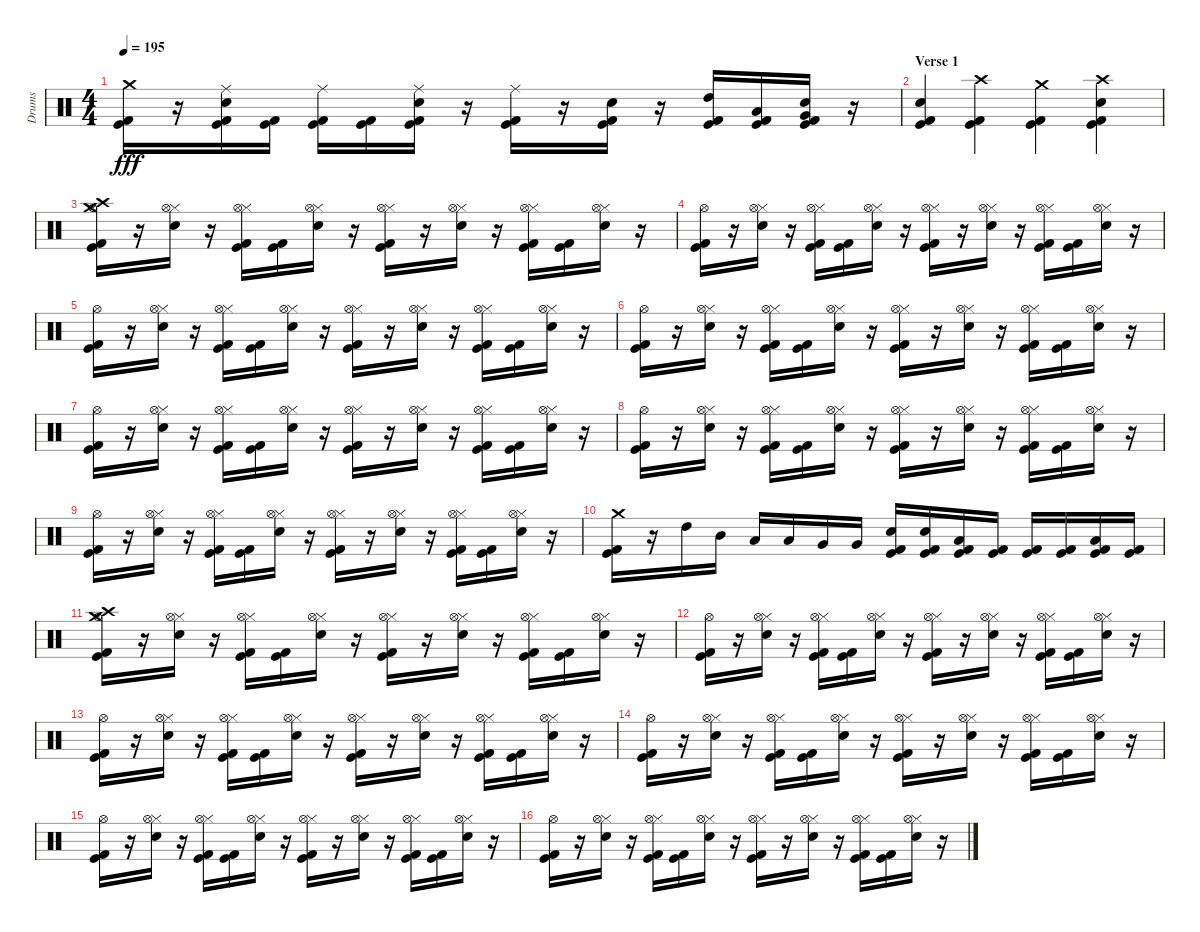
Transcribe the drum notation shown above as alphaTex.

\track ("Drums" "Drums") {instrument percussion}
\staff {score}
\articulation defaults
\ts (4 4)
\tempo 195
\clef neutral
\ks c
("Kick (hit) 2" "Kick (hit)" "Crash medium (hit)").16{dy fff} r.16 ("Kick (hit) 2" "Kick (hit)" "Snare (hit) 2" "Ride (middle)").16 ("Kick (hit) 2" "Kick (hit)").16 ("Kick (hit) 2" "Kick (hit)" "Ride (middle)").16 ("Kick (hit) 2" "Kick (hit)").16 ("Kick (hit) 2" "Kick (hit)" "Snare (hit) 2" "Ride (middle)").16 r.16 ("Kick (hit) 2" "Kick (hit)" "Ride (middle)").16 r.16 ("Kick (hit) 2" "Kick (hit)" "Snare (hit) 2").16 r.16 ("Kick (hit) 2" "Kick (hit)" "High Tom (hit)").16 ("Kick (hit) 2" "Kick (hit)" "Low Tom (hit)").16 ("Kick (hit) 2" "Kick (hit)" "Snare (hit) 2" "Very Low Tom (hit)").16 r.16 |
\section ("" "Verse 1")
("Kick (hit) 2" "Kick (hit)" "Snare (hit) 2").4 ("Kick (hit) 2" "Kick (hit)" "Crash high (hit)").4 ("Kick (hit) 2" "Kick (hit)" "Crash medium (hit)").4 ("Kick (hit) 2" "Kick (hit)" "Snare (hit) 2" "Crash high (hit)").4 |
("Kick (hit) 2" "Kick (hit)" "Crash high (hit)" "Hi-Hat (open)" "Crash medium (hit)").16 r.16 ("Snare (hit) 2" "Hi-Hat (closed)" "Hi-Hat (open)").16 r.16 ("Kick (hit) 2" "Kick (hit)" "Hi-Hat (closed)" "Hi-Hat (open)").16 ("Kick (hit) 2" "Kick (hit)").16 ("Snare (hit) 2" "Hi-Hat (closed)" "Hi-Hat (open)").16 r.16 ("Kick (hit) 2" "Kick (hit)" "Hi-Hat (closed)" "Hi-Hat (open)").16 r.16 ("Snare (hit) 2" "Hi-Hat (closed)" "Hi-Hat (open)").16 r.16 ("Kick (hit) 2" "Kick (hit)" "Hi-Hat (closed)" "Hi-Hat (open)").16 ("Kick (hit) 2" "Kick (hit)").16 ("Snare (hit) 2" "Hi-Hat (closed)" "Hi-Hat (open)").16 r.16 |
("Kick (hit) 2" "Kick (hit)" "Hi-Hat (open)").16 r.16 ("Snare (hit) 2" "Hi-Hat (closed)" "Hi-Hat (open)").16 r.16 ("Kick (hit) 2" "Kick (hit)" "Hi-Hat (closed)" "Hi-Hat (open)").16 ("Kick (hit) 2" "Kick (hit)").16 ("Snare (hit) 2" "Hi-Hat (closed)" "Hi-Hat (open)").16 r.16 ("Kick (hit) 2" "Kick (hit)" "Hi-Hat (closed)" "Hi-Hat (open)").16 r.16 ("Snare (hit) 2" "Hi-Hat (closed)" "Hi-Hat (open)").16 r.16 ("Kick (hit) 2" "Kick (hit)" "Hi-Hat (closed)" "Hi-Hat (open)").16 ("Kick (hit) 2" "Kick (hit)").16 ("Snare (hit) 2" "Hi-Hat (closed)" "Hi-Hat (open)").16 r.16 |
("Kick (hit) 2" "Kick (hit)" "Hi-Hat (open)").16 r.16 ("Snare (hit) 2" "Hi-Hat (closed)" "Hi-Hat (open)").16 r.16 ("Kick (hit) 2" "Kick (hit)" "Hi-Hat (closed)" "Hi-Hat (open)").16 ("Kick (hit) 2" "Kick (hit)").16 ("Snare (hit) 2" "Hi-Hat (closed)" "Hi-Hat (open)").16 r.16 ("Kick (hit) 2" "Kick (hit)" "Hi-Hat (closed)" "Hi-Hat (open)").16 r.16 ("Snare (hit) 2" "Hi-Hat (closed)" "Hi-Hat (open)").16 r.16 ("Kick (hit) 2" "Kick (hit)" "Hi-Hat (closed)" "Hi-Hat (open)").16 ("Kick (hit) 2" "Kick (hit)").16 ("Snare (hit) 2" "Hi-Hat (closed)" "Hi-Hat (open)").16 r.16 |
("Kick (hit) 2" "Kick (hit)" "Hi-Hat (open)").16 r.16 ("Snare (hit) 2" "Hi-Hat (closed)" "Hi-Hat (open)").16 r.16 ("Kick (hit) 2" "Kick (hit)" "Hi-Hat (closed)" "Hi-Hat (open)").16 ("Kick (hit) 2" "Kick (hit)").16 ("Snare (hit) 2" "Hi-Hat (closed)" "Hi-Hat (open)").16 r.16 ("Kick (hit) 2" "Kick (hit)" "Hi-Hat (closed)" "Hi-Hat (open)").16 r.16 ("Snare (hit) 2" "Hi-Hat (closed)" "Hi-Hat (open)").16 r.16 ("Kick (hit) 2" "Kick (hit)" "Hi-Hat (closed)" "Hi-Hat (open)").16 ("Kick (hit) 2" "Kick (hit)").16 ("Snare (hit) 2" "Hi-Hat (closed)" "Hi-Hat (open)").16 r.16 |
("Kick (hit) 2" "Kick (hit)" "Hi-Hat (open)").16 r.16 ("Snare (hit) 2" "Hi-Hat (closed)" "Hi-Hat (open)").16 r.16 ("Kick (hit) 2" "Kick (hit)" "Hi-Hat (closed)" "Hi-Hat (open)").16 ("Kick (hit) 2" "Kick (hit)").16 ("Snare (hit) 2" "Hi-Hat (closed)" "Hi-Hat (open)").16 r.16 ("Kick (hit) 2" "Kick (hit)" "Hi-Hat (closed)" "Hi-Hat (open)").16 r.16 ("Snare (hit) 2" "Hi-Hat (closed)" "Hi-Hat (open)").16 r.16 ("Kick (hit) 2" "Kick (hit)" "Hi-Hat (closed)" "Hi-Hat (open)").16 ("Kick (hit) 2" "Kick (hit)").16 ("Snare (hit) 2" "Hi-Hat (closed)" "Hi-Hat (open)").16 r.16 |
("Kick (hit) 2" "Kick (hit)" "Hi-Hat (open)").16 r.16 ("Snare (hit) 2" "Hi-Hat (closed)" "Hi-Hat (open)").16 r.16 ("Kick (hit) 2" "Kick (hit)" "Hi-Hat (closed)" "Hi-Hat (open)").16 ("Kick (hit) 2" "Kick (hit)").16 ("Snare (hit) 2" "Hi-Hat (closed)" "Hi-Hat (open)").16 r.16 ("Kick (hit) 2" "Kick (hit)" "Hi-Hat (closed)" "Hi-Hat (open)").16 r.16 ("Snare (hit) 2" "Hi-Hat (closed)" "Hi-Hat (open)").16 r.16 ("Kick (hit) 2" "Kick (hit)" "Hi-Hat (closed)" "Hi-Hat (open)").16 ("Kick (hit) 2" "Kick (hit)").16 ("Snare (hit) 2" "Hi-Hat (closed)" "Hi-Hat (open)").16 r.16 |
("Kick (hit) 2" "Kick (hit)" "Hi-Hat (open)").16 r.16 ("Snare (hit) 2" "Hi-Hat (closed)" "Hi-Hat (open)").16 r.16 ("Kick (hit) 2" "Kick (hit)" "Hi-Hat (closed)" "Hi-Hat (open)").16 ("Kick (hit) 2" "Kick (hit)").16 ("Snare (hit) 2" "Hi-Hat (closed)" "Hi-Hat (open)").16 r.16 ("Kick (hit) 2" "Kick (hit)" "Hi-Hat (closed)" "Hi-Hat (open)").16 r.16 ("Snare (hit) 2" "Hi-Hat (closed)" "Hi-Hat (open)").16 r.16 ("Kick (hit) 2" "Kick (hit)" "Hi-Hat (closed)" "Hi-Hat (open)").16 ("Kick (hit) 2" "Kick (hit)").16 ("Snare (hit) 2" "Hi-Hat (closed)" "Hi-Hat (open)").16 r.16 |
("Kick (hit) 2" "Kick (hit)" "Crash medium (hit)").16 r.16 "High Tom (hit)".16 "Mid Tom (hit)".16 "Low Tom (hit)".16 "Low Tom (hit)".16 "Very Low Tom (hit)".16 "Very Low Tom (hit)".16 ("Kick (hit) 2" "Kick (hit)" "Snare (hit) 2").16 ("Kick (hit) 2" "Kick (hit)" "Snare (hit) 2").16 ("Kick (hit) 2" "Kick (hit)" "Low Tom (hit)").16 ("Kick (hit) 2" "Kick (hit)").16 ("Kick (hit) 2" "Kick (hit)").16 ("Kick (hit) 2" "Kick (hit)").16 ("Kick (hit) 2" "Kick (hit)" "Low Floor Tom (hit)").16 ("Kick (hit) 2" "Kick (hit)").16 |
("Kick (hit) 2" "Kick (hit)" "Crash high (hit)" "Hi-Hat (open)" "Crash medium (hit)").16 r.16 ("Snare (hit) 2" "Hi-Hat (closed)" "Hi-Hat (open)").16 r.16 ("Kick (hit) 2" "Kick (hit)" "Hi-Hat (closed)" "Hi-Hat (open)").16 ("Kick (hit) 2" "Kick (hit)").16 ("Snare (hit) 2" "Hi-Hat (closed)" "Hi-Hat (open)").16 r.16 ("Kick (hit) 2" "Kick (hit)" "Hi-Hat (closed)" "Hi-Hat (open)").16 r.16 ("Snare (hit) 2" "Hi-Hat (closed)" "Hi-Hat (open)").16 r.16 ("Kick (hit) 2" "Kick (hit)" "Hi-Hat (closed)" "Hi-Hat (open)").16 ("Kick (hit) 2" "Kick (hit)").16 ("Snare (hit) 2" "Hi-Hat (closed)" "Hi-Hat (open)").16 r.16 |
("Kick (hit) 2" "Kick (hit)" "Hi-Hat (open)").16 r.16 ("Snare (hit) 2" "Hi-Hat (closed)" "Hi-Hat (open)").16 r.16 ("Kick (hit) 2" "Kick (hit)" "Hi-Hat (closed)" "Hi-Hat (open)").16 ("Kick (hit) 2" "Kick (hit)").16 ("Snare (hit) 2" "Hi-Hat (closed)" "Hi-Hat (open)").16 r.16 ("Kick (hit) 2" "Kick (hit)" "Hi-Hat (closed)" "Hi-Hat (open)").16 r.16 ("Snare (hit) 2" "Hi-Hat (closed)" "Hi-Hat (open)").16 r.16 ("Kick (hit) 2" "Kick (hit)" "Hi-Hat (closed)" "Hi-Hat (open)").16 ("Kick (hit) 2" "Kick (hit)").16 ("Snare (hit) 2" "Hi-Hat (closed)" "Hi-Hat (open)").16 r.16 |
("Kick (hit) 2" "Kick (hit)" "Hi-Hat (open)").16 r.16 ("Snare (hit) 2" "Hi-Hat (closed)" "Hi-Hat (open)").16 r.16 ("Kick (hit) 2" "Kick (hit)" "Hi-Hat (closed)" "Hi-Hat (open)").16 ("Kick (hit) 2" "Kick (hit)").16 ("Snare (hit) 2" "Hi-Hat (closed)" "Hi-Hat (open)").16 r.16 ("Kick (hit) 2" "Kick (hit)" "Hi-Hat (closed)" "Hi-Hat (open)").16 r.16 ("Snare (hit) 2" "Hi-Hat (closed)" "Hi-Hat (open)").16 r.16 ("Kick (hit) 2" "Kick (hit)" "Hi-Hat (closed)" "Hi-Hat (open)").16 ("Kick (hit) 2" "Kick (hit)").16 ("Snare (hit) 2" "Hi-Hat (closed)" "Hi-Hat (open)").16 r.16 |
("Kick (hit) 2" "Kick (hit)" "Hi-Hat (open)").16 r.16 ("Snare (hit) 2" "Hi-Hat (closed)" "Hi-Hat (open)").16 r.16 ("Kick (hit) 2" "Kick (hit)" "Hi-Hat (closed)" "Hi-Hat (open)").16 ("Kick (hit) 2" "Kick (hit)").16 ("Snare (hit) 2" "Hi-Hat (closed)" "Hi-Hat (open)").16 r.16 ("Kick (hit) 2" "Kick (hit)" "Hi-Hat (closed)" "Hi-Hat (open)").16 r.16 ("Snare (hit) 2" "Hi-Hat (closed)" "Hi-Hat (open)").16 r.16 ("Kick (hit) 2" "Kick (hit)" "Hi-Hat (closed)" "Hi-Hat (open)").16 ("Kick (hit) 2" "Kick (hit)").16 ("Snare (hit) 2" "Hi-Hat (closed)" "Hi-Hat (open)").16 r.16 |
("Kick (hit) 2" "Kick (hit)" "Hi-Hat (open)").16 r.16 ("Snare (hit) 2" "Hi-Hat (closed)" "Hi-Hat (open)").16 r.16 ("Kick (hit) 2" "Kick (hit)" "Hi-Hat (closed)" "Hi-Hat (open)").16 ("Kick (hit) 2" "Kick (hit)").16 ("Snare (hit) 2" "Hi-Hat (closed)" "Hi-Hat (open)").16 r.16 ("Kick (hit) 2" "Kick (hit)" "Hi-Hat (closed)" "Hi-Hat (open)").16 r.16 ("Snare (hit) 2" "Hi-Hat (closed)" "Hi-Hat (open)").16 r.16 ("Kick (hit) 2" "Kick (hit)" "Hi-Hat (closed)" "Hi-Hat (open)").16 ("Kick (hit) 2" "Kick (hit)").16 ("Snare (hit) 2" "Hi-Hat (closed)" "Hi-Hat (open)").16 r.16 |
("Kick (hit) 2" "Kick (hit)" "Hi-Hat (open)").16 r.16 ("Snare (hit) 2" "Hi-Hat (closed)" "Hi-Hat (open)").16 r.16 ("Kick (hit) 2" "Kick (hit)" "Hi-Hat (closed)" "Hi-Hat (open)").16 ("Kick (hit) 2" "Kick (hit)").16 ("Snare (hit) 2" "Hi-Hat (closed)" "Hi-Hat (open)").16 r.16 ("Kick (hit) 2" "Kick (hit)" "Hi-Hat (closed)" "Hi-Hat (open)").16 r.16 ("Snare (hit) 2" "Hi-Hat (closed)" "Hi-Hat (open)").16 r.16 ("Kick (hit) 2" "Kick (hit)" "Hi-Hat (closed)" "Hi-Hat (open)").16 ("Kick (hit) 2" "Kick (hit)").16 ("Snare (hit) 2" "Hi-Hat (closed)" "Hi-Hat (open)").16 r.16
